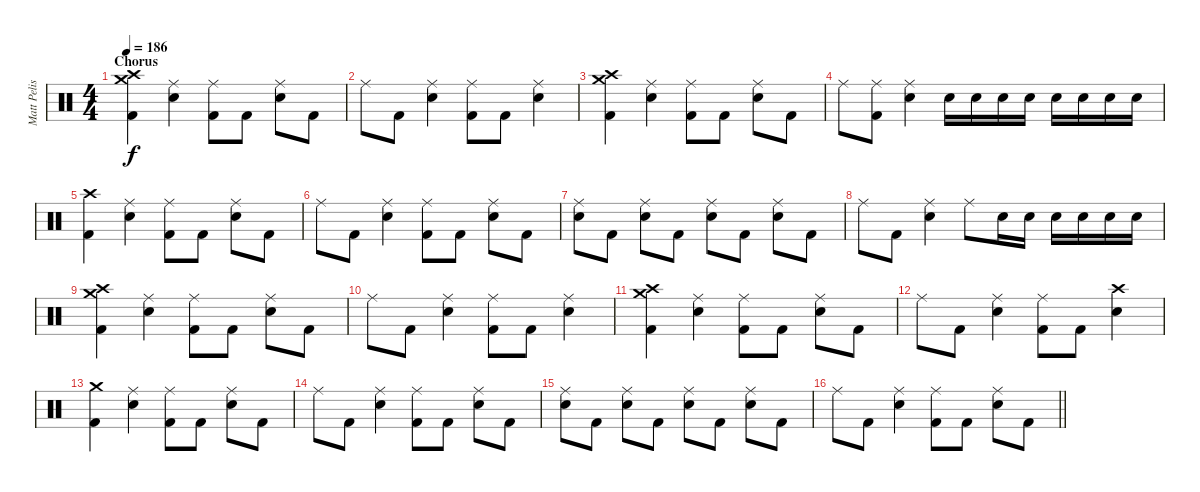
\track ("Matt Pelissier" "Matt Pelis") {instrument percussion}
\staff {score}
\articulation defaults
\ts (4 4)
\section ("" "Chorus")
\tempo 186
\clef neutral
\ks c
("Crash high (hit)" "Crash medium (hit)" "Kick (hit) 2").4{dy f} ("Ride (middle)" "Snare (hit) 2").4 ("Ride (middle)" "Kick (hit) 2").8 "Kick (hit) 2".8 ("Snare (hit) 2" "Ride (middle)").8 "Kick (hit) 2".8 |
"Ride (middle)".8 "Kick (hit) 2".8 ("Ride (middle)" "Snare (hit) 2").4 ("Kick (hit) 2" "Ride (middle)").8 "Kick (hit) 2".8 ("Ride (middle)" "Snare (hit) 2").4 |
("Crash high (hit)" "Crash medium (hit)" "Kick (hit) 2").4 ("Snare (hit) 2" "Ride (middle)").4 ("Ride (middle)" "Kick (hit) 2").8 "Kick (hit) 2".8 ("Snare (hit) 2" "Ride (middle)").8 "Kick (hit) 2".8 |
"Ride (middle)".8 ("Ride (middle)" "Kick (hit) 2").8 ("Ride (middle)" "Snare (hit) 2").4 "Snare (hit) 2".16 "Snare (hit) 2".16 "Snare (hit) 2".16 "Snare (hit) 2".16 "Snare (hit) 2".16 "Snare (hit) 2".16 "Snare (hit) 2".16 "Snare (hit) 2".16 |
("Crash high (hit)" "Kick (hit) 2").4 ("Snare (hit) 2" "Ride (middle)").4 ("Ride (middle)" "Kick (hit) 2").8 "Kick (hit) 2".8 ("Ride (middle)" "Snare (hit) 2").8 "Kick (hit) 2".8 |
"Ride (middle)".8 "Kick (hit) 2".8 ("Snare (hit) 2" "Ride (middle)").4 ("Ride (middle)" "Kick (hit) 2").8 "Kick (hit) 2".8 ("Ride (middle)" "Snare (hit) 2").8 "Kick (hit) 2".8 |
("Ride (middle)" "Snare (hit) 2").8 "Kick (hit) 2".8 ("Ride (middle)" "Snare (hit) 2").8 "Kick (hit) 2".8 ("Ride (middle)" "Snare (hit) 2").8 "Kick (hit) 2".8 ("Ride (middle)" "Snare (hit) 2").8 "Kick (hit) 2".8 |
"Ride (middle)".8 "Kick (hit) 2".8 ("Ride (middle)" "Snare (hit) 2").4 "Ride (middle)".8 "Snare (hit) 2".16 "Snare (hit) 2".16 "Snare (hit) 2".16 "Snare (hit) 2".16 "Snare (hit) 2".16 "Snare (hit) 2".16 |
("Crash high (hit)" "Crash medium (hit)" "Kick (hit) 2").4 ("Ride (middle)" "Snare (hit) 2").4 ("Ride (middle)" "Kick (hit) 2").8 "Kick (hit) 2".8 ("Snare (hit) 2" "Ride (middle)").8 "Kick (hit) 2".8 |
"Ride (middle)".8 "Kick (hit) 2".8 ("Ride (middle)" "Snare (hit) 2").4 ("Kick (hit) 2" "Ride (middle)").8 "Kick (hit) 2".8 ("Ride (middle)" "Snare (hit) 2").4 |
("Crash high (hit)" "Crash medium (hit)" "Kick (hit) 2").4 ("Snare (hit) 2" "Ride (middle)").4 ("Ride (middle)" "Kick (hit) 2").8 "Kick (hit) 2".8 ("Snare (hit) 2" "Ride (middle)").8 "Kick (hit) 2".8 |
"Ride (middle)".8 "Kick (hit) 2".8 ("Ride (middle)" "Snare (hit) 2").4 ("Ride (middle)" "Kick (hit) 2").8 "Kick (hit) 2".8 ("Snare (hit) 2" "Crash high (hit)").4 |
("Crash medium (hit)" "Kick (hit) 2").4 ("Snare (hit) 2" "Ride (middle)").4 ("Ride (middle)" "Kick (hit) 2").8 "Kick (hit) 2".8 ("Snare (hit) 2" "Ride (middle)").8 "Kick (hit) 2".8 |
"Ride (middle)".8 "Kick (hit) 2".8 ("Snare (hit) 2" "Ride (middle)").4 ("Ride (middle)" "Kick (hit) 2").8 "Kick (hit) 2".8 ("Ride (middle)" "Snare (hit) 2").8 "Kick (hit) 2".8 |
("Snare (hit) 2" "Ride (middle)").8 "Kick (hit) 2".8 ("Snare (hit) 2" "Ride (middle)").8 "Kick (hit) 2".8 ("Snare (hit) 2" "Ride (middle)").8 "Kick (hit) 2".8 ("Snare (hit) 2" "Ride (middle)").8 "Kick (hit) 2".8 |
\barLineRight lightlight "Ride (middle)".8 "Kick (hit) 2".8
("Ride (middle)" "Snare (hit) 2").4 ("Ride (middle)" "Kick (hit) 2").8 "Kick (hit) 2".8 ("Snare (hit) 2" "Ride (middle)").8 "Kick (hit) 2".8
